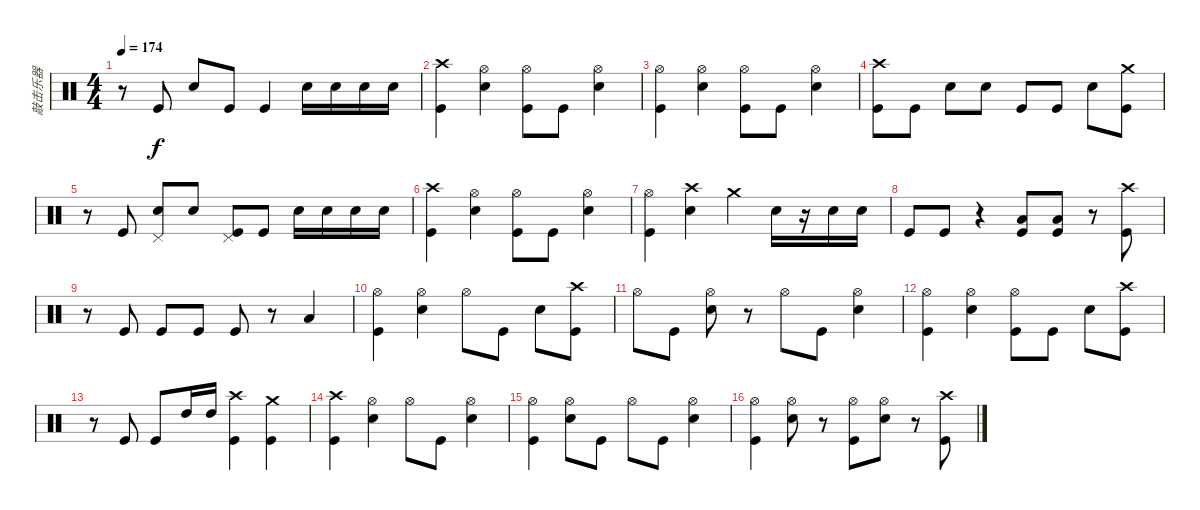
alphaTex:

\track ("敲击乐器" "敲击乐器") {instrument percussion}
\staff {score}
\articulation defaults
\ts (4 4)
\tempo 174
\clef neutral
\ks c
r.8{dy f} "Kick (hit)".8 "Electric Snare (hit)".8 "Kick (hit)".8 "Kick (hit)".4 "Electric Snare (hit)".16 "Electric Snare (hit)".16 "Electric Snare (hit)".16 "Electric Snare (hit)".16 |
("Crash high (hit)" "Kick (hit)").4 ("Electric Snare (hit)" "Hi-Hat (open)").4 ("Hi-Hat (open)" "Kick (hit)").8 "Kick (hit)".8 ("Hi-Hat (open)" "Electric Snare (hit)").4 |
("Kick (hit)" "Hi-Hat (open)").4 ("Electric Snare (hit)" "Hi-Hat (open)").4 ("Hi-Hat (open)" "Kick (hit)").8 "Kick (hit)".8 ("Hi-Hat (open)" "Electric Snare (hit)").4 |
("Crash high (hit)" "Kick (hit)").8 "Kick (hit)".8 "Snare (hit) 2".8 "Snare (hit) 2".8 "Kick (hit)".8 "Kick (hit)".8 "Snare (hit) 2".8 ("Kick (hit)" "Crash medium (hit)").8 |
r.8 "Kick (hit)".8 ("Snare (hit) 2" "Pedal Hi-Hat (hit)").8 "Snare (hit) 2".8 ("Kick (hit)" "Pedal Hi-Hat (hit)").8 "Kick (hit)".8 "Snare (hit) 2".16 "Snare (hit) 2".16 "Snare (hit) 2".16 "Snare (hit) 2".16 |
("Crash high (hit)" "Kick (hit)").4 ("Electric Snare (hit)" "Hi-Hat (open)").4 ("Hi-Hat (open)" "Kick (hit)").8 "Kick (hit)".8 ("Hi-Hat (open)" "Electric Snare (hit)").4 |
("Hi-Hat (open)" "Kick (hit)").4 ("Crash high (hit)" "Snare (hit) 2").4 "Crash medium (hit)".4 "Snare (hit) 2".16 r.16 "Snare (hit) 2".16 "Snare (hit) 2".16 |
"Kick (hit)".8 "Kick (hit)".8 r.4 ("Low Floor Tom (hit)" "Kick (hit)").8 ("Low Floor Tom (hit)" "Kick (hit)").8 r.8 ("Crash high (hit)" "Kick (hit)").8 |
r.8 "Kick (hit)".8 "Kick (hit)".8 "Kick (hit)".8 "Kick (hit)".8 r.8 "Low Floor Tom (hit)".4 |
("Hi-Hat (open)" "Kick (hit)").4 ("Hi-Hat (open)" "Electric Snare (hit)").4 "Hi-Hat (open)".8 "Kick (hit)".8 "Electric Snare (hit)".8 ("Kick (hit)" "Crash high (hit)").8 |
"Hi-Hat (open)".8 "Kick (hit)".8 ("Hi-Hat (open)" "Electric Snare (hit)").8 r.8 "Hi-Hat (open)".8 "Kick (hit)".8 ("Hi-Hat (open)" "Electric Snare (hit)").4 |
("Hi-Hat (open)" "Kick (hit)").4 ("Hi-Hat (open)" "Electric Snare (hit)").4 ("Hi-Hat (open)" "Kick (hit)").8 "Kick (hit)".8 "Electric Snare (hit)".8 ("Kick (hit)" "Crash high (hit)").8 |
r.8 "Kick (hit)".8 "Kick (hit)".8 "High Tom (hit)".16 "High Tom (hit)".16 ("Kick (hit)" "Crash high (hit)").4 ("Kick (hit)" "Crash medium (hit)").4 |
("Crash high (hit)" "Kick (hit)").4 ("Hi-Hat (open)" "Electric Snare (hit)").4 "Hi-Hat (open)".8 "Kick (hit)".8 ("Electric Snare (hit)" "Hi-Hat (open)").4 |
("Kick (hit)" "Hi-Hat (open)").4 ("Electric Snare (hit)" "Hi-Hat (open)").8 "Kick (hit)".8 "Hi-Hat (open)".8 "Kick (hit)".8 ("Electric Snare (hit)" "Hi-Hat (open)").4 |
("Kick (hit)" "Hi-Hat (open)").4 ("Electric Snare (hit)" "Hi-Hat (open)").8 r.8 ("Kick (hit)" "Hi-Hat (open)").8 ("Electric Snare (hit)" "Hi-Hat (open)").8 r.8 ("Kick (hit)" "Crash high (hit)").8
